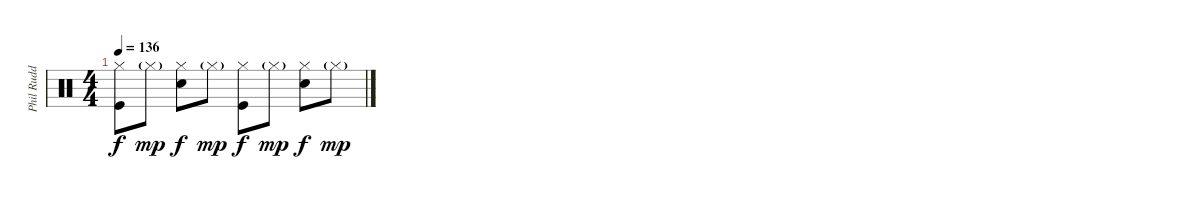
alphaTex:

\track ("Phil Rudd" "Phil Rudd") {instrument percussion}
\staff {score}
\articulation defaults
\ts (4 4)
\tempo 136
\clef neutral
\ks c
("Hi-Hat (closed)" "Kick (hit)").8{dy f} "Hi-Hat (closed)"{g}.8{dy mp} ("Hi-Hat (closed)" "Electric Snare (hit)").8{dy f} "Hi-Hat (closed)"{g}.8{dy mp} ("Hi-Hat (closed)" "Kick (hit)").8{dy f} "Hi-Hat (closed)"{g}.8{dy mp} ("Hi-Hat (closed)" "Electric Snare (hit)").8{dy f} "Hi-Hat (closed)"{g}.8{dy mp}
